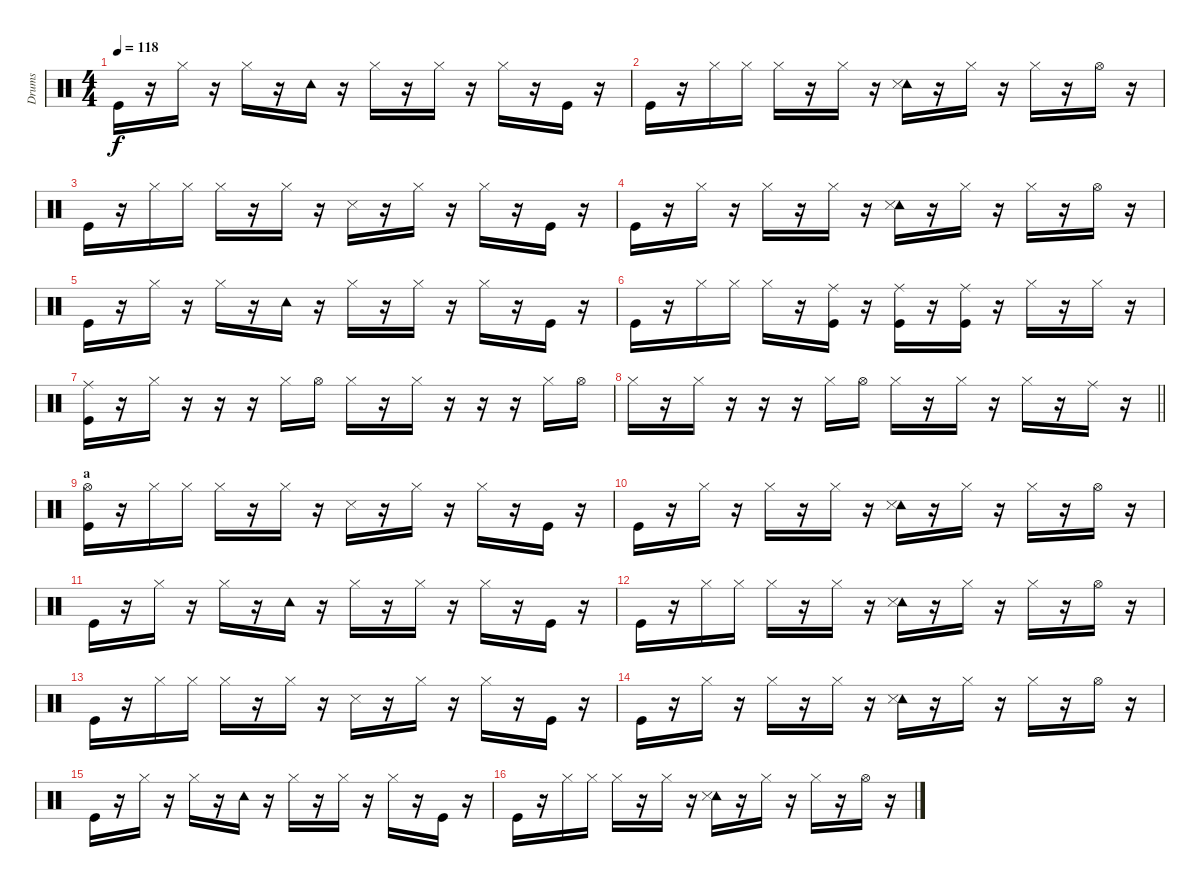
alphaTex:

\track ("Drums" "Drums") {instrument percussion}
\staff {score}
\articulation defaults
\ts (4 4)
\tempo 118
\clef neutral
\ks c "Kick (hit)".16{dy f}
r.16 "Hi-Hat (closed)".16 r.16 "Hi-Hat (closed)".16 r.16 "Tambourine (hit)".16 r.16 "Hi-Hat (closed)".16 r.16 "Hi-Hat (closed)".16 r.16 "Hi-Hat (closed)".16 r.16 "Kick (hit)".16 r.16 |
"Kick (hit)".16 r.16 "Hi-Hat (closed)".16 "Hi-Hat (closed)".16 "Hi-Hat (closed)".16 r.16 "Hi-Hat (closed)".16 r.16 ("Tambourine (hit)" "Snare (side stick) 3").16 r.16 "Hi-Hat (closed)".16 r.16 "Hi-Hat (closed)".16 r.16 "Hi-Hat (open)".16 r.16 |
"Kick (hit)".16 r.16 "Hi-Hat (closed)".16 "Hi-Hat (closed)".16 "Hi-Hat (closed)".16 r.16 "Hi-Hat (closed)".16 r.16 "Snare (side stick) 3".16 r.16 "Hi-Hat (closed)".16 r.16 "Hi-Hat (closed)".16 r.16 "Kick (hit)".16 r.16 |
"Kick (hit)".16 r.16 "Hi-Hat (closed)".16 r.16 "Hi-Hat (closed)".16 r.16 "Hi-Hat (closed)".16 r.16 ("Tambourine (hit)" "Snare (side stick) 3").16 r.16 "Hi-Hat (closed)".16 r.16 "Hi-Hat (closed)".16 r.16 "Hi-Hat (open)".16 r.16 |
"Kick (hit)".16 r.16 "Hi-Hat (closed)".16 r.16 "Hi-Hat (closed)".16 r.16 "Tambourine (hit)".16 r.16 "Hi-Hat (closed)".16 r.16 "Hi-Hat (closed)".16 r.16 "Hi-Hat (closed)".16 r.16 "Kick (hit)".16 r.16 |
"Kick (hit)".16 r.16 "Hi-Hat (closed)".16 "Hi-Hat (closed)".16 "Hi-Hat (closed)".16 r.16 ("Ride (middle)" "Kick (hit)").16 r.16 ("Ride (middle)" "Kick (hit)").16 r.16 ("Ride (middle)" "Kick (hit)").16 r.16 "Hi-Hat (closed)".16 r.16 "Hi-Hat (closed)".16 r.16 |
("Ride (middle)" "Kick (hit)").16 r.16 "Hi-Hat (closed)".16 r.16 r.16 r.16 "Hi-Hat (closed)".16 "Hi-Hat (open)".16 "Hi-Hat (closed)".16 r.16 "Hi-Hat (closed)".16 r.16 r.16 r.16 "Hi-Hat (closed)".16 "Hi-Hat (open)".16 |
\barLineRight lightlight "Hi-Hat (closed)".16
r.16 "Hi-Hat (closed)".16 r.16 r.16 r.16 "Hi-Hat (closed)".16 "Hi-Hat (open)".16 "Hi-Hat (closed)".16 r.16 "Hi-Hat (closed)".16 r.16 "Hi-Hat (closed)".16 r.16 "Ride (middle)".16 r.16 |
\section ("" "a")
("Kick (hit)" "Hi-Hat (open)").16 r.16 "Hi-Hat (closed)".16 "Hi-Hat (closed)".16 "Hi-Hat (closed)".16 r.16 "Hi-Hat (closed)".16 r.16 "Snare (side stick) 3".16 r.16 "Hi-Hat (closed)".16 r.16 "Hi-Hat (closed)".16 r.16 "Kick (hit)".16 r.16 |
"Kick (hit)".16 r.16 "Hi-Hat (closed)".16 r.16 "Hi-Hat (closed)".16 r.16 "Hi-Hat (closed)".16 r.16 ("Tambourine (hit)" "Snare (side stick) 3").16 r.16 "Hi-Hat (closed)".16 r.16 "Hi-Hat (closed)".16 r.16 "Hi-Hat (open)".16 r.16 |
"Kick (hit)".16 r.16 "Hi-Hat (closed)".16 r.16 "Hi-Hat (closed)".16 r.16 "Tambourine (hit)".16 r.16 "Hi-Hat (closed)".16 r.16 "Hi-Hat (closed)".16 r.16 "Hi-Hat (closed)".16 r.16 "Kick (hit)".16 r.16 |
"Kick (hit)".16 r.16 "Hi-Hat (closed)".16 "Hi-Hat (closed)".16 "Hi-Hat (closed)".16 r.16 "Hi-Hat (closed)".16 r.16 ("Tambourine (hit)" "Snare (side stick) 3").16 r.16 "Hi-Hat (closed)".16 r.16 "Hi-Hat (closed)".16 r.16 "Hi-Hat (open)".16 r.16 |
"Kick (hit)".16 r.16 "Hi-Hat (closed)".16 "Hi-Hat (closed)".16 "Hi-Hat (closed)".16 r.16 "Hi-Hat (closed)".16 r.16 "Snare (side stick) 3".16 r.16 "Hi-Hat (closed)".16 r.16 "Hi-Hat (closed)".16 r.16 "Kick (hit)".16 r.16 |
"Kick (hit)".16 r.16 "Hi-Hat (closed)".16 r.16 "Hi-Hat (closed)".16 r.16 "Hi-Hat (closed)".16 r.16 ("Tambourine (hit)" "Snare (side stick) 3").16 r.16 "Hi-Hat (closed)".16 r.16 "Hi-Hat (closed)".16 r.16 "Hi-Hat (open)".16 r.16 |
"Kick (hit)".16 r.16 "Hi-Hat (closed)".16 r.16 "Hi-Hat (closed)".16 r.16 "Tambourine (hit)".16 r.16 "Hi-Hat (closed)".16 r.16 "Hi-Hat (closed)".16 r.16 "Hi-Hat (closed)".16 r.16 "Kick (hit)".16 r.16 |
"Kick (hit)".16 r.16 "Hi-Hat (closed)".16 "Hi-Hat (closed)".16 "Hi-Hat (closed)".16 r.16 "Hi-Hat (closed)".16 r.16 ("Tambourine (hit)" "Snare (side stick) 3").16 r.16 "Hi-Hat (closed)".16 r.16 "Hi-Hat (closed)".16 r.16 "Hi-Hat (open)".16 r.16
